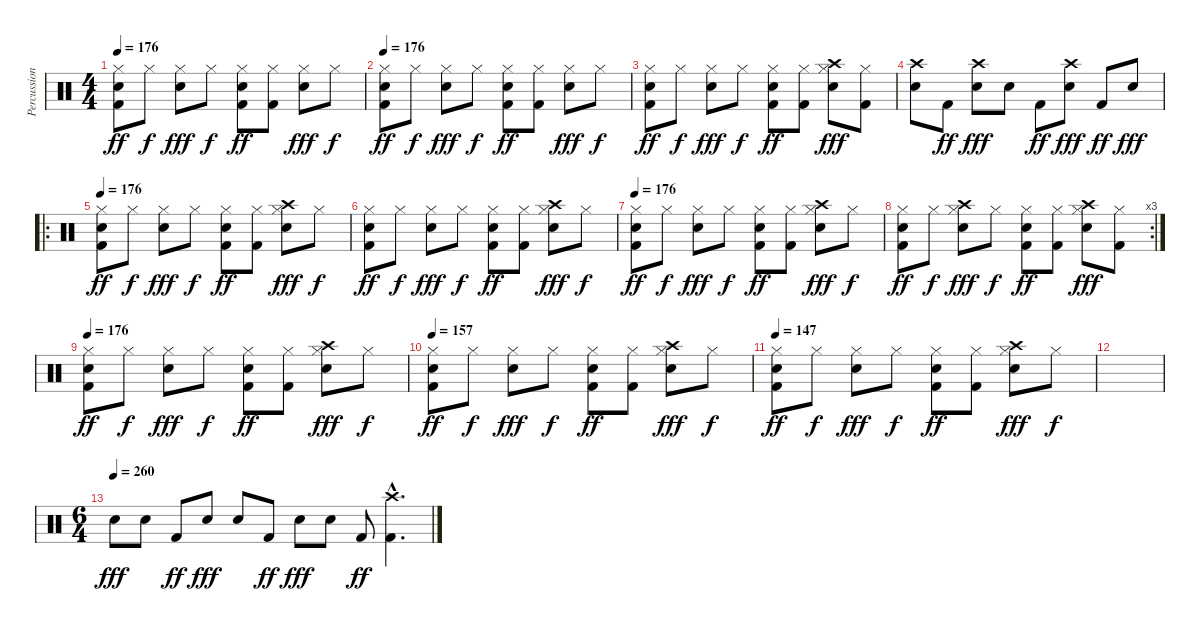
\track ("Percussion" "Percussion") {instrument percussion}
\staff {score}
\articulation defaults
\ts (4 4)
\tempo 176
\clef neutral
\ks c
("Hi-Hat (closed)" "Snare (hit) 2" "Kick (hit) 2").8{dy ff} "Hi-Hat (closed)".8{dy f} ("Hi-Hat (closed)" "Snare (hit) 2").8{dy fff} "Hi-Hat (closed)".8{dy f} ("Hi-Hat (closed)" "Snare (hit) 2" "Kick (hit) 2").8{dy ff} ("Hi-Hat (closed)" "Kick (hit) 2").8 ("Hi-Hat (closed)" "Snare (hit) 2").8{dy fff} "Hi-Hat (closed)".8{dy f} |
\tempo 176
("Hi-Hat (closed)" "Snare (hit) 2" "Kick (hit) 2").8{dy ff} "Hi-Hat (closed)".8{dy f} ("Hi-Hat (closed)" "Snare (hit) 2").8{dy fff} "Hi-Hat (closed)".8{dy f} ("Hi-Hat (closed)" "Snare (hit) 2" "Kick (hit) 2").8{dy ff} ("Hi-Hat (closed)" "Kick (hit) 2").8 ("Hi-Hat (closed)" "Snare (hit) 2").8{dy fff} "Hi-Hat (closed)".8{dy f} |
("Hi-Hat (closed)" "Snare (hit) 2" "Kick (hit) 2").8{dy ff} "Hi-Hat (closed)".8{dy f} ("Hi-Hat (closed)" "Snare (hit) 2").8{dy fff} "Hi-Hat (closed)".8{dy f} ("Hi-Hat (closed)" "Snare (hit) 2" "Kick (hit) 2").8{dy ff} ("Hi-Hat (closed)" "Kick (hit) 2").8 ("Hi-Hat (closed)" "Crash high (hit)" "Snare (hit) 2").8{dy fff} ("Hi-Hat (closed)" "Kick (hit) 2").8 |
("Crash high (hit)" "Snare (hit) 2").8 "Kick (hit) 2".8{dy ff} ("Crash high (hit)" "Snare (hit) 2").8{dy fff} "Snare (hit) 2".8 "Kick (hit) 2".8{dy ff} ("Crash high (hit)" "Snare (hit) 2").8{dy fff} "Kick (hit) 2".8{dy ff} "Snare (hit) 2".8{dy fff} |
\ro
\tempo 176
("Hi-Hat (closed)" "Snare (hit) 2" "Kick (hit) 2").8{dy ff} "Hi-Hat (closed)".8{dy f} ("Hi-Hat (closed)" "Snare (hit) 2").8{dy fff} "Hi-Hat (closed)".8{dy f} ("Hi-Hat (closed)" "Snare (hit) 2" "Kick (hit) 2").8{dy ff} ("Hi-Hat (closed)" "Kick (hit) 2").8 ("Hi-Hat (closed)" "Crash high (hit)" "Snare (hit) 2").8{dy fff} "Hi-Hat (closed)".8{dy f} |
("Hi-Hat (closed)" "Snare (hit) 2" "Kick (hit) 2").8{dy ff} "Hi-Hat (closed)".8{dy f} ("Hi-Hat (closed)" "Snare (hit) 2").8{dy fff} "Hi-Hat (closed)".8{dy f} ("Hi-Hat (closed)" "Snare (hit) 2" "Kick (hit) 2").8{dy ff} ("Hi-Hat (closed)" "Kick (hit) 2").8 ("Hi-Hat (closed)" "Crash high (hit)" "Snare (hit) 2").8{dy fff} "Hi-Hat (closed)".8{dy f} |
\tempo 176
("Hi-Hat (closed)" "Snare (hit) 2" "Kick (hit) 2").8{dy ff} "Hi-Hat (closed)".8{dy f} ("Hi-Hat (closed)" "Snare (hit) 2").8{dy fff} "Hi-Hat (closed)".8{dy f} ("Hi-Hat (closed)" "Snare (hit) 2" "Kick (hit) 2").8{dy ff} ("Hi-Hat (closed)" "Kick (hit) 2").8 ("Hi-Hat (closed)" "Crash high (hit)" "Snare (hit) 2").8{dy fff} "Hi-Hat (closed)".8{dy f} |
\rc 3
("Hi-Hat (closed)" "Snare (hit) 2" "Kick (hit) 2").8{dy ff} "Hi-Hat (closed)".8{dy f} ("Hi-Hat (closed)" "Crash high (hit)" "Snare (hit) 2").8{dy fff} "Hi-Hat (closed)".8{dy f} ("Hi-Hat (closed)" "Snare (hit) 2" "Kick (hit) 2").8{dy ff} ("Hi-Hat (closed)" "Kick (hit) 2").8 ("Hi-Hat (closed)" "Crash high (hit)" "Snare (hit) 2").8{dy fff} ("Hi-Hat (closed)" "Kick (hit) 2").8 |
\tempo 176
("Hi-Hat (closed)" "Snare (hit) 2" "Kick (hit) 2").8{dy ff} "Hi-Hat (closed)".8{dy f} ("Hi-Hat (closed)" "Snare (hit) 2").8{dy fff} "Hi-Hat (closed)".8{dy f} ("Hi-Hat (closed)" "Snare (hit) 2" "Kick (hit) 2").8{dy ff} ("Hi-Hat (closed)" "Kick (hit) 2").8 ("Hi-Hat (closed)" "Crash high (hit)" "Snare (hit) 2").8{dy fff} "Hi-Hat (closed)".8{dy f} |
\tempo 157
("Hi-Hat (closed)" "Snare (hit) 2" "Kick (hit) 2").8{dy ff} "Hi-Hat (closed)".8{dy f} ("Hi-Hat (closed)" "Snare (hit) 2").8{dy fff} "Hi-Hat (closed)".8{dy f} ("Hi-Hat (closed)" "Snare (hit) 2" "Kick (hit) 2").8{dy ff} ("Hi-Hat (closed)" "Kick (hit) 2").8 ("Hi-Hat (closed)" "Crash high (hit)" "Snare (hit) 2").8{dy fff} "Hi-Hat (closed)".8{dy f} |
\tempo 147
("Hi-Hat (closed)" "Snare (hit) 2" "Kick (hit) 2").8{dy ff} "Hi-Hat (closed)".8{dy f} ("Hi-Hat (closed)" "Snare (hit) 2").8{dy fff} "Hi-Hat (closed)".8{dy f} ("Hi-Hat (closed)" "Snare (hit) 2" "Kick (hit) 2").8{dy ff} ("Hi-Hat (closed)" "Kick (hit) 2").8 ("Hi-Hat (closed)" "Crash high (hit)" "Snare (hit) 2").8{dy fff} "Hi-Hat (closed)".8{dy f} |
|
\ts (6 4)
\tempo (260)
"Snare (hit) 2".8{dy fff} "Snare (hit) 2".8 "Kick (hit) 2".8{dy ff} "Snare (hit) 2".8{dy fff} "Snare (hit) 2".8 "Kick (hit) 2".8{dy ff} "Snare (hit) 2".8{dy fff} "Snare (hit) 2".8 "Kick (hit) 2".8{dy ff} ("Crash high (hit)"{hac} "Kick (hit) 2"{hac}).4{d}
